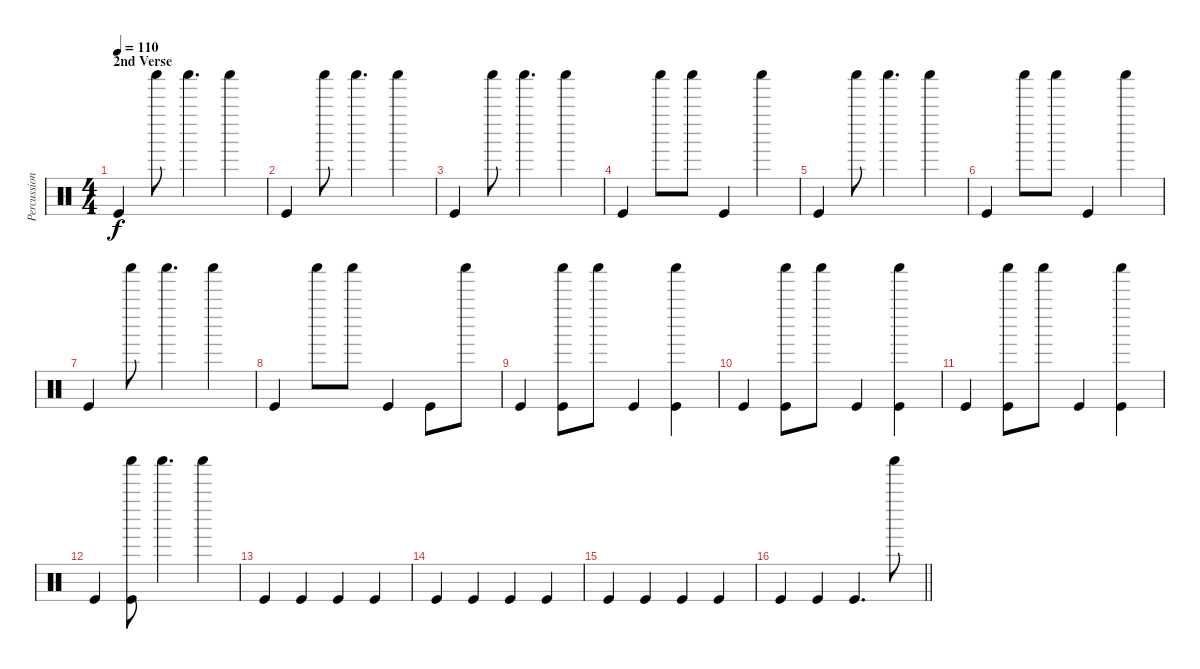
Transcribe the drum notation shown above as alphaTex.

\track ("Percussion" "Percussion") {instrument percussion}
\staff {score}
\articulation defaults
\ts (4 4)
\section ("" "2nd Verse")
\tempo 110
\clef neutral
\ks c "Kick (hit)".4{dy f} "Shaker (hit)".8 "Shaker (hit)".4{d} "Shaker (hit)".4
|
"Kick (hit)".4 "Shaker (hit)".8 "Shaker (hit)".4{d} "Shaker (hit)".4 |
"Kick (hit)".4 "Shaker (hit)".8 "Shaker (hit)".4{d} "Shaker (hit)".4 |
"Kick (hit)".4 "Shaker (hit)".8 "Shaker (hit)".8 "Kick (hit)".4 "Shaker (hit)".4 |
"Kick (hit)".4 "Shaker (hit)".8 "Shaker (hit)".4{d} "Shaker (hit)".4 |
"Kick (hit)".4 "Shaker (hit)".8 "Shaker (hit)".8 "Kick (hit)".4 "Shaker (hit)".4 |
"Kick (hit)".4 "Shaker (hit)".8 "Shaker (hit)".4{d} "Shaker (hit)".4 |
"Kick (hit)".4 "Shaker (hit)".8 "Shaker (hit)".8 "Kick (hit)".4 "Kick (hit)".8 "Shaker (hit)".8 |
"Kick (hit)".4 ("Shaker (hit)" "Kick (hit)").8 "Shaker (hit)".8 "Kick (hit)".4 ("Shaker (hit)" "Kick (hit)").4 |
"Kick (hit)".4 ("Shaker (hit)" "Kick (hit)").8 "Shaker (hit)".8 "Kick (hit)".4 ("Shaker (hit)" "Kick (hit)").4 |
"Kick (hit)".4 ("Shaker (hit)" "Kick (hit)").8 "Shaker (hit)".8 "Kick (hit)".4 ("Shaker (hit)" "Kick (hit)").4 |
"Kick (hit)".4 ("Shaker (hit)" "Kick (hit)").8 "Shaker (hit)".4{d} "Shaker (hit)".4 |
"Kick (hit)".4 "Kick (hit)".4 "Kick (hit)".4 "Kick (hit)".4 |
"Kick (hit)".4 "Kick (hit)".4 "Kick (hit)".4 "Kick (hit)".4 |
"Kick (hit)".4 "Kick (hit)".4 "Kick (hit)".4 "Kick (hit)".4 |
\barLineRight lightlight "Kick (hit)".4 "Kick (hit)".4 "Kick (hit)".4{d} "Shaker (hit)".8
